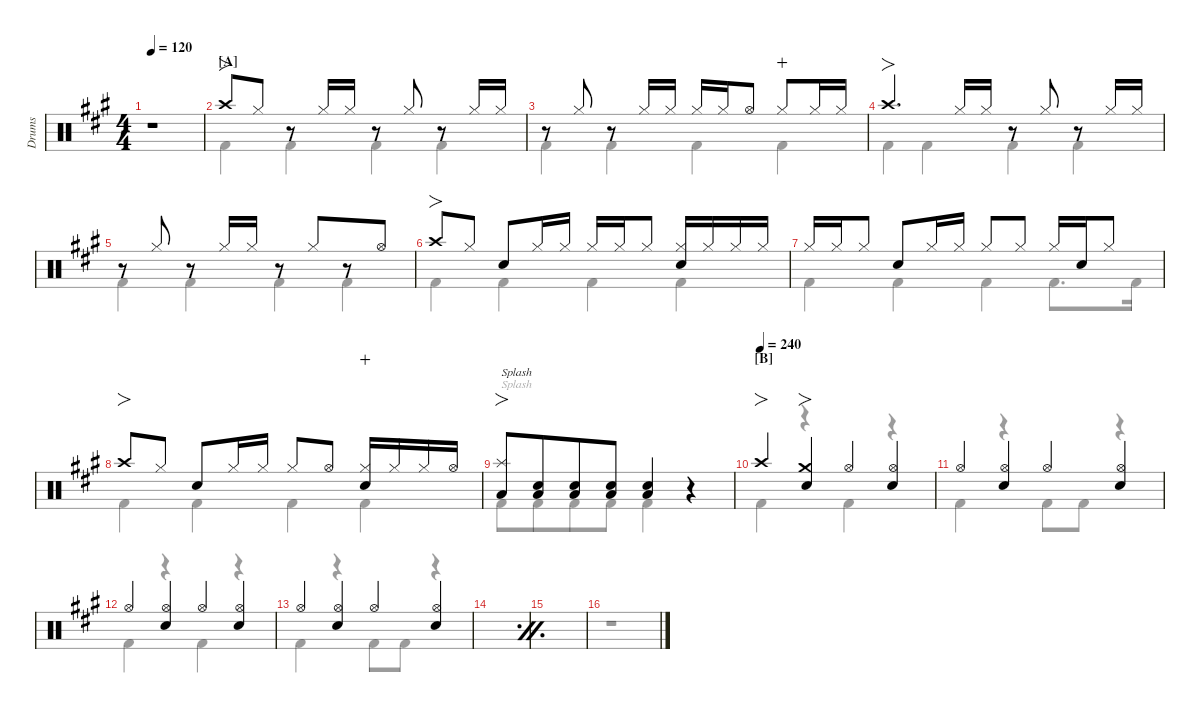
\defaultSystemsLayout 4
\hideDynamics
\bracketExtendMode nobrackets
\otherSystemsTrackNameOrientation horizontal
\track ("Drums" "Drums") {defaultSystemsLayout 4 instrument percussion}
\staff {score}
\articulation defaults
\voice
\ts (4 4)
\beaming (8 4 4)
\tempo 120
\clef neutral
\ks a
r.1{dy f beam Up} |
\section ("A" "")
\scale
1.06647 "Crash high (hit)"{acc forcenatural}.8{fo beam Up} "Hi-Hat (closed)"{acc forcenatural}.8{beam Up beam split} r.8{beam Up} "Hi-Hat (closed)"{acc forcenatural}.16{beam Up} "Hi-Hat (closed)"{acc forcenatural}.16{dy mf beam Up} r.8{beam Up} "Hi-Hat (closed)"{acc forcenatural}.8{dy f beam Up beam split} r.8{beam Up} "Hi-Hat (closed)"{acc forcenatural}.16{beam Up} "Hi-Hat (closed)"{acc forcenatural}.16{dy mf beam Up} |
\scale
0.977842 r.8{beam Up} "Hi-Hat (closed)"{acc forcenatural}.8{dy f beam Up beam split} r.8{beam Up} "Hi-Hat (closed)"{acc forcenatural}.16{beam Up} "Hi-Hat (closed)"{acc forcenatural}.16{dy mf beam Up} "Hi-Hat (closed)"{acc forcenatural}.16{dy f beam Up} "Hi-Hat (closed)"{acc forcenatural}.16{dy mf beam Up} "Hi-Hat (open)"{acc forcenatural}.8{dy f beam Up beam split} "Hi-Hat (closed)"{acc forcenatural}.8{dy p wahc beam Up} "Hi-Hat (closed)"{acc forcenatural}.16{dy f beam Up} "Hi-Hat (closed)"{acc forcenatural}.16{dy mf beam Up} |
\scale
0.977842 "Crash high (hit)"{acc forcenatural}.4{fo d dy f beam Up} "Hi-Hat (closed)"{acc forcenatural}.16{beam Up} "Hi-Hat (closed)"{acc forcenatural}.16{dy mf beam Up} r.8{beam Up} "Hi-Hat (closed)"{acc forcenatural}.8{dy f beam Up beam split} r.8{beam Up} "Hi-Hat (closed)"{acc forcenatural}.16{beam Up} "Hi-Hat (closed)"{acc forcenatural}.16{dy mf beam Up} |
\scale
0.977842 r.8{beam Up} "Hi-Hat (closed)"{acc forcenatural}.8{dy f beam Up beam split} r.8{beam Up} "Hi-Hat (closed)"{acc forcenatural}.16{beam Up} "Hi-Hat (closed)"{acc forcenatural}.16{dy mf beam Up} r.8{beam Up} "Hi-Hat (closed)"{acc forcenatural}.8{dy f beam Up beam merge} r.8{beam Up beam merge} "Hi-Hat (open)"{acc forcenatural}.8{beam Up} |
\scale
1.06205 "Crash high (hit)"{acc forcenatural}.8{fo beam Up} "Hi-Hat (closed)"{acc forcenatural}.8{dy mf beam Up beam split} "Snare (hit) 2"{acc forcenatural}.8{dy f beam Up} "Hi-Hat (closed)"{acc forcenatural}.16{beam Up} "Hi-Hat (closed)"{acc forcenatural}.16{dy mf beam Up} "Hi-Hat (closed)"{acc forcenatural}.16{dy f beam Up} "Hi-Hat (closed)"{acc forcenatural}.16{dy mf beam Up} "Hi-Hat (closed)"{acc forcenatural}.8{dy f beam Up beam split} ("Hi-Hat (closed)"{acc forcenatural} "Snare (hit) 2"{acc forcenatural}).16{beam Up} "Hi-Hat (closed)"{acc forcenatural}.16{dy mp beam Up} "Hi-Hat (closed)"{acc forcenatural}.16{dy mf beam Up} "Hi-Hat (closed)"{acc forcenatural}.16{dy mp beam Up} |
\scale
0.973421 "Hi-Hat (closed)"{acc forcenatural}.16{dy f beam Up} "Hi-Hat (closed)"{acc forcenatural}.16{dy mf beam Up} "Hi-Hat (closed)"{acc forcenatural}.8{dy f beam Up beam split} "Snare (hit) 2"{acc forcenatural}.8{beam Up} "Hi-Hat (closed)"{acc forcenatural}.16{dy mf beam Up} "Hi-Hat (closed)"{acc forcenatural}.16{dy mp beam Up} "Hi-Hat (closed)"{acc forcenatural}.8{dy f beam Up} "Hi-Hat (closed)"{acc forcenatural}.8{dy mf beam Up beam split} "Hi-Hat (closed)"{acc forcenatural}.16{dy f beam Up} "Snare (hit) 2"{acc forcenatural}.16{beam Up} "Hi-Hat (closed)"{acc forcenatural}.8{dy mf beam Up} |
\scale
0.973421 "Crash high (hit)"{acc forcenatural}.8{fo dy f beam Up} "Hi-Hat (closed)"{acc forcenatural}.8{dy mf beam Up beam split} "Snare (hit) 2"{acc forcenatural}.8{dy f beam Up} "Hi-Hat (closed)"{acc forcenatural}.16{beam Up} "Hi-Hat (closed)"{acc forcenatural}.16{dy mf beam Up} "Hi-Hat (closed)"{acc forcenatural}.8{dy f beam Up} "Hi-Hat (open)"{acc forcenatural}.8{beam Up beam split} ("Hi-Hat (closed)"{acc forcenatural} "Snare (hit) 2"{acc forcenatural}).16{wahc beam Up} "Hi-Hat (closed)"{acc forcenatural}.16{dy mp beam Up} "Hi-Hat (closed)"{acc forcenatural}.16{dy mf beam Up} "Hi-Hat (open)"{acc forcenatural}.16{dy f beam Up} |
\scale
0.991105 ("Splash (hit)"{acc forcenatural} "Low Tom (hit)"{acc forcenatural}).8{fo txt "Splash" beam Up} ("Snare (hit) 2"{acc forcenatural} "Low Tom (hit)"{acc forcenatural}).8{beam Up} ("Snare (hit) 2"{acc forcenatural} "Low Tom (hit)"{acc forcenatural}).8{beam Up} ("Snare (hit) 2"{acc forcenatural} "Low Tom (hit)"{acc forcenatural}).8{beam Up} ("Snare (hit) 2"{acc forcenatural} "Low Tom (hit)"{acc forcenatural}).4{beam Up} r.4{beam Up} |
\section ("B" "")
\tempo 240
\scale
1.06647 "Crash high (hit)"{acc forcenatural}.4{fo beam Up} ("Crash medium (hit)"{acc forcenatural} "Snare (hit) 2"{acc forcenatural}).4{fo beam Up} "Hi-Hat (open)"{acc forcenatural}.4{beam Up} ("Hi-Hat (open)"{acc forcenatural} "Snare (hit) 2"{acc forcenatural}).4{beam Up} |
\scale
0.977842 "Hi-Hat (open)"{acc forcenatural}.4{beam Up} ("Hi-Hat (open)"{acc forcenatural} "Snare (hit) 2"{acc forcenatural}).4{beam Up} "Hi-Hat (open)"{acc forcenatural}.4{beam Up} ("Hi-Hat (open)"{acc forcenatural} "Snare (hit) 2"{acc forcenatural}).4{beam Up} |
\scale
0.977842 "Hi-Hat (open)"{acc forcenatural}.4{beam Up} ("Hi-Hat (open)"{acc forcenatural} "Snare (hit) 2"{acc forcenatural}).4{beam Up} "Hi-Hat (open)"{acc forcenatural}.4{beam Up} ("Hi-Hat (open)"{acc forcenatural} "Snare (hit) 2"{acc forcenatural}).4{beam Up} |
\scale
0.977842 "Hi-Hat (open)"{acc forcenatural}.4{beam Up} ("Hi-Hat (open)"{acc forcenatural} "Snare (hit) 2"{acc forcenatural}).4{beam Up} "Hi-Hat (open)"{acc forcenatural}.4{beam Up} ("Hi-Hat (open)"{acc forcenatural} "Snare (hit) 2"{acc forcenatural}).4{beam Up} |
\simile firstofdouble
\scale
1.06647 |
\simile secondofdouble
\scale
0.977842 |
\simile firstofdouble
\scale
0.977842
\voice
\clef neutral
\ottava regular
\simile none
\ks a
r.1{dy f beam Down} |
\scale
1.06647 "Kick (hit) 2"{acc forcenatural}.4{beam Down} "Kick (hit) 2"{acc forcenatural}.4{beam Down} "Kick (hit) 2"{acc forcenatural}.4{beam Down} "Kick (hit) 2"{acc forcenatural}.4{beam Down} |
\scale
0.977842 "Kick (hit) 2"{acc forcenatural}.4{beam Down} "Kick (hit) 2"{acc forcenatural}.4{beam Down} "Kick (hit) 2"{acc forcenatural}.4{beam Down} "Kick (hit) 2"{acc forcenatural}.4{beam Down} |
\scale
0.977842 "Kick (hit) 2"{acc forcenatural}.4{beam Down} "Kick (hit) 2"{acc forcenatural}.4{beam Down} "Kick (hit) 2"{acc forcenatural}.4{beam Down} "Kick (hit) 2"{acc forcenatural}.4{beam Down} |
\scale
0.977842 "Kick (hit) 2"{acc forcenatural}.4{beam Down} "Kick (hit) 2"{acc forcenatural}.4{beam Down} "Kick (hit) 2"{acc forcenatural}.4{beam Down} "Kick (hit) 2"{acc forcenatural}.4{beam Down} |
\scale
1.06205 "Kick (hit) 2"{acc forcenatural}.4{beam Down} "Kick (hit) 2"{acc forcenatural}.4{beam Down} "Kick (hit) 2"{acc forcenatural}.4{beam Down} "Kick (hit) 2"{acc forcenatural}.4{beam Down} |
\scale
0.973421 "Kick (hit) 2"{acc forcenatural}.4{beam Down} "Kick (hit) 2"{acc forcenatural}.4{beam Down} "Kick (hit) 2"{acc forcenatural}.4{beam Down} "Kick (hit) 2"{acc forcenatural}.8{d beam Down} "Kick (hit) 2"{acc forcenatural}.16{beam Down} |
\scale
0.973421 "Kick (hit) 2"{acc forcenatural}.4{beam Down} "Kick (hit) 2"{acc forcenatural}.4{beam Down} "Kick (hit) 2"{acc forcenatural}.4{beam Down} "Kick (hit) 2"{acc forcenatural}.4{beam Down} |
\scale
0.991105 "Kick (hit) 2"{acc forcenatural}.8{txt "Splash" beam Down} "Kick (hit) 2"{acc forcenatural}.8{beam Down} "Kick (hit) 2"{acc forcenatural}.8{beam Down} "Kick (hit) 2"{acc forcenatural}.8{beam Down} "Kick (hit) 2"{acc forcenatural}.4{beam Down} r.4{beam Down} |
\scale
1.06647 "Kick (hit) 2"{acc forcenatural}.4{beam Down} r.4{beam Down} "Kick (hit) 2"{acc forcenatural}.4{beam Down} r.4{beam Down} |
\scale
0.977842 "Kick (hit) 2"{acc forcenatural}.4{beam Down} r.4{beam Down} "Kick (hit) 2"{acc forcenatural}.8{beam Down} "Kick (hit) 2"{acc forcenatural}.8{beam Down} r.4{beam Down} |
\scale
0.977842 "Kick (hit) 2"{acc forcenatural}.4{beam Down} r.4{beam Down} "Kick (hit) 2"{acc forcenatural}.4{beam Down} r.4{beam Down} |
\scale
0.977842 "Kick (hit) 2"{acc forcenatural}.4{beam Down} r.4{beam Down} "Kick (hit) 2"{acc forcenatural}.8{beam Down} "Kick (hit) 2"{acc forcenatural}.8{beam Down} r.4{beam Down} |
\simile firstofdouble
\scale
1.06647 |
\simile secondofdouble
\scale
0.977842 |
\simile firstofdouble
\scale
0.977842
